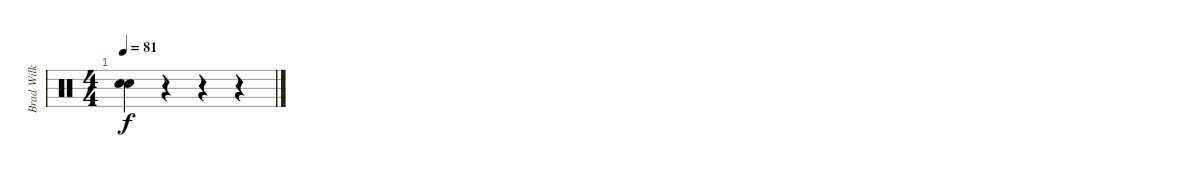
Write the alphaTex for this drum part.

\track ("Brad Wilk" "Brad Wilk") {instrument percussion}
\staff {score}
\articulation defaults
\ts (4 4)
\tempo 81
\clef neutral
\ks c
("Snare (hit)"{t} "Snare (hit)"{t}).4{dy f} r.4 r.4 r.4
